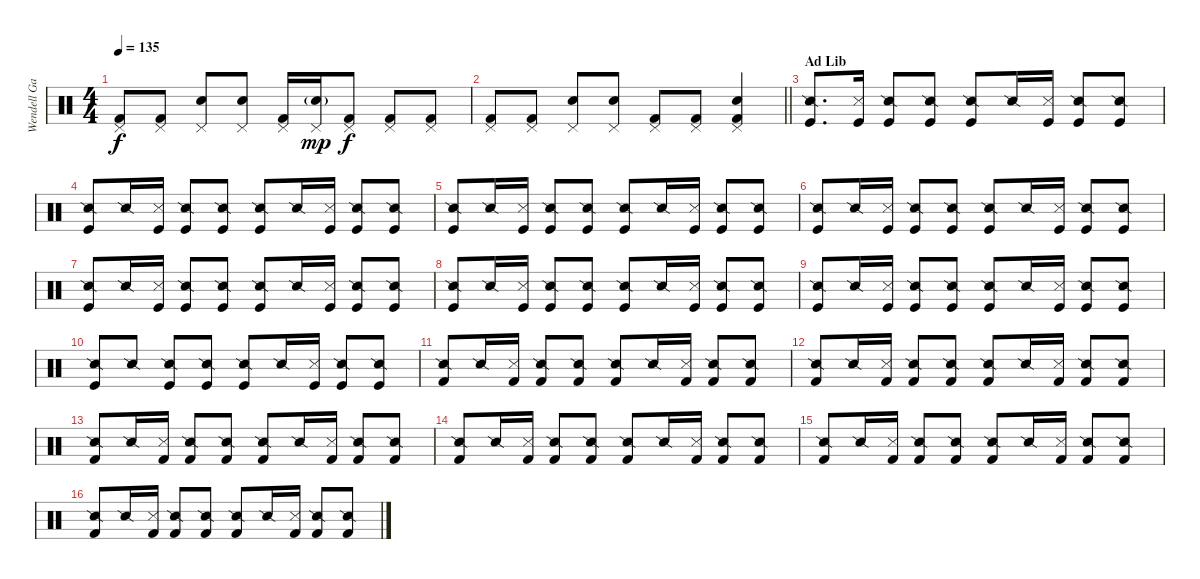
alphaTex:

\track ("Wendell Garcia" "Wendell Ga") {instrument percussion}
\staff {score}
\articulation defaults
\ts (4 4)
\tempo 135
\clef neutral
\ks c
("Pedal Hi-Hat (hit)" "Kick (hit) 2").8{dy f} ("Pedal Hi-Hat (hit)" "Kick (hit) 2").8 ("Pedal Hi-Hat (hit)" "Electric Snare (hit)").8 ("Pedal Hi-Hat (hit)" "Electric Snare (hit)").8 ("Pedal Hi-Hat (hit)" "Kick (hit) 2").16 ("Pedal Hi-Hat (hit)" "Electric Snare (hit)"{g}).16{dy mp} ("Pedal Hi-Hat (hit)" "Kick (hit) 2").8{dy f} ("Pedal Hi-Hat (hit)" "Kick (hit) 2").8 ("Pedal Hi-Hat (hit)" "Kick (hit) 2").8 |
\barLineRight lightlight
("Pedal Hi-Hat (hit)" "Kick (hit) 2").8 ("Pedal Hi-Hat (hit)" "Kick (hit) 2").8 ("Pedal Hi-Hat (hit)" "Electric Snare (hit)").8 ("Pedal Hi-Hat (hit)" "Electric Snare (hit)").8 ("Pedal Hi-Hat (hit)" "Kick (hit) 2").8 ("Pedal Hi-Hat (hit)" "Kick (hit) 2").8 ("Pedal Hi-Hat (hit)" "Electric Snare (hit)" "Kick (hit) 2").4 |
\section ("" "Ad Lib")
("Kick (hit)" "Snare (side stick) 2").8{d} ("Kick (hit)" "Snare (side stick) 3").16 ("Kick (hit)" "Snare (side stick) 2").8 ("Kick (hit)" "Snare (side stick) 2").8 ("Kick (hit)" "Snare (side stick) 2").8 "Snare (side stick) 2".16 ("Kick (hit)" "Snare (side stick) 3").16 ("Kick (hit)" "Snare (side stick) 2").8 ("Kick (hit)" "Snare (side stick) 2").8 |
("Kick (hit)" "Snare (side stick) 2").8 "Snare (side stick) 2".16 ("Kick (hit)" "Snare (side stick) 3").16 ("Kick (hit)" "Snare (side stick) 2").8 ("Kick (hit)" "Snare (side stick) 2").8 ("Kick (hit)" "Snare (side stick) 2").8 "Snare (side stick) 2".16 ("Kick (hit)" "Snare (side stick) 3").16 ("Kick (hit)" "Snare (side stick) 2").8 ("Kick (hit)" "Snare (side stick) 2").8 |
("Kick (hit)" "Snare (side stick) 2").8 "Snare (side stick) 2".16 ("Kick (hit)" "Snare (side stick) 3").16 ("Kick (hit)" "Snare (side stick) 2").8 ("Kick (hit)" "Snare (side stick) 2").8 ("Kick (hit)" "Snare (side stick) 2").8 "Snare (side stick) 2".16 ("Kick (hit)" "Snare (side stick) 3").16 ("Kick (hit)" "Snare (side stick) 2").8 ("Kick (hit)" "Snare (side stick) 2").8 |
("Kick (hit)" "Snare (side stick) 2").8 "Snare (side stick) 2".16 ("Kick (hit)" "Snare (side stick) 3").16 ("Kick (hit)" "Snare (side stick) 2").8 ("Kick (hit)" "Snare (side stick) 2").8 ("Kick (hit)" "Snare (side stick) 2").8 "Snare (side stick) 2".16 ("Kick (hit)" "Snare (side stick) 3").16 ("Kick (hit)" "Snare (side stick) 2").8 ("Kick (hit)" "Snare (side stick) 2").8 |
("Kick (hit)" "Snare (side stick) 2").8 "Snare (side stick) 2".16 ("Kick (hit)" "Snare (side stick) 3").16 ("Kick (hit)" "Snare (side stick) 2").8 ("Kick (hit)" "Snare (side stick) 2").8 ("Kick (hit)" "Snare (side stick) 2").8 "Snare (side stick) 2".16 ("Kick (hit)" "Snare (side stick) 3").16 ("Kick (hit)" "Snare (side stick) 2").8 ("Kick (hit)" "Snare (side stick) 2").8 |
("Kick (hit)" "Snare (side stick) 2").8 "Snare (side stick) 2".16 ("Kick (hit)" "Snare (side stick) 3").16 ("Kick (hit)" "Snare (side stick) 2").8 ("Kick (hit)" "Snare (side stick) 2").8 ("Kick (hit)" "Snare (side stick) 2").8 "Snare (side stick) 2".16 ("Kick (hit)" "Snare (side stick) 3").16 ("Kick (hit)" "Snare (side stick) 2").8 ("Kick (hit)" "Snare (side stick) 2").8 |
("Kick (hit)" "Snare (side stick) 2").8 "Snare (side stick) 2".16 ("Kick (hit)" "Snare (side stick) 3").16 ("Kick (hit)" "Snare (side stick) 2").8 ("Kick (hit)" "Snare (side stick) 2").8 ("Kick (hit)" "Snare (side stick) 2").8 "Snare (side stick) 2".16 ("Kick (hit)" "Snare (side stick) 3").16 ("Kick (hit)" "Snare (side stick) 2").8 ("Kick (hit)" "Snare (side stick) 2").8 |
("Kick (hit)" "Snare (side stick) 2").8 "Snare (side stick) 2".8 ("Kick (hit)" "Snare (side stick) 2").8 ("Kick (hit)" "Snare (side stick) 2").8 ("Kick (hit)" "Snare (side stick) 2").8 "Snare (side stick) 2".16 ("Kick (hit)" "Snare (side stick) 3").16 ("Kick (hit)" "Snare (side stick) 2").8 ("Kick (hit)" "Snare (side stick) 2").8 |
("Kick (hit) 2" "Snare (side stick) 2").8 "Snare (side stick) 2".16 ("Kick (hit) 2" "Snare (side stick) 3").16 ("Kick (hit) 2" "Snare (side stick) 2").8 ("Kick (hit) 2" "Snare (side stick) 2").8 ("Kick (hit) 2" "Snare (side stick) 2").8 "Snare (side stick) 2".16 ("Kick (hit) 2" "Snare (side stick) 3").16 ("Kick (hit) 2" "Snare (side stick) 2").8 ("Kick (hit) 2" "Snare (side stick) 2").8 |
("Kick (hit) 2" "Snare (side stick) 2").8 "Snare (side stick) 2".16 ("Kick (hit) 2" "Snare (side stick) 3").16 ("Kick (hit) 2" "Snare (side stick) 2").8 ("Kick (hit) 2" "Snare (side stick) 2").8 ("Kick (hit) 2" "Snare (side stick) 2").8 "Snare (side stick) 2".16 ("Kick (hit) 2" "Snare (side stick) 3").16 ("Kick (hit) 2" "Snare (side stick) 2").8 ("Kick (hit) 2" "Snare (side stick) 2").8 |
("Kick (hit) 2" "Snare (side stick) 2").8 "Snare (side stick) 2".16 ("Kick (hit) 2" "Snare (side stick) 3").16 ("Kick (hit) 2" "Snare (side stick) 2").8 ("Kick (hit) 2" "Snare (side stick) 2").8 ("Kick (hit) 2" "Snare (side stick) 2").8 "Snare (side stick) 2".16 ("Kick (hit) 2" "Snare (side stick) 3").16 ("Kick (hit) 2" "Snare (side stick) 2").8 ("Kick (hit) 2" "Snare (side stick) 2").8 |
("Kick (hit) 2" "Snare (side stick) 2").8 "Snare (side stick) 2".16 ("Kick (hit) 2" "Snare (side stick) 3").16 ("Kick (hit) 2" "Snare (side stick) 2").8 ("Kick (hit) 2" "Snare (side stick) 2").8 ("Kick (hit) 2" "Snare (side stick) 2").8 "Snare (side stick) 2".16 ("Kick (hit) 2" "Snare (side stick) 3").16 ("Kick (hit) 2" "Snare (side stick) 2").8 ("Kick (hit) 2" "Snare (side stick) 2").8 |
("Kick (hit) 2" "Snare (side stick) 2").8 "Snare (side stick) 2".16 ("Kick (hit) 2" "Snare (side stick) 3").16 ("Kick (hit) 2" "Snare (side stick) 2").8 ("Kick (hit) 2" "Snare (side stick) 2").8 ("Kick (hit) 2" "Snare (side stick) 2").8 "Snare (side stick) 2".16 ("Kick (hit) 2" "Snare (side stick) 3").16 ("Kick (hit) 2" "Snare (side stick) 2").8 ("Kick (hit) 2" "Snare (side stick) 2").8 |
("Kick (hit) 2" "Snare (side stick) 2").8 "Snare (side stick) 2".16 ("Kick (hit) 2" "Snare (side stick) 3").16 ("Kick (hit) 2" "Snare (side stick) 2").8 ("Kick (hit) 2" "Snare (side stick) 2").8 ("Kick (hit) 2" "Snare (side stick) 2").8 "Snare (side stick) 2".16 ("Kick (hit) 2" "Snare (side stick) 3").16 ("Kick (hit) 2" "Snare (side stick) 2").8 ("Kick (hit) 2" "Snare (side stick) 2").8
